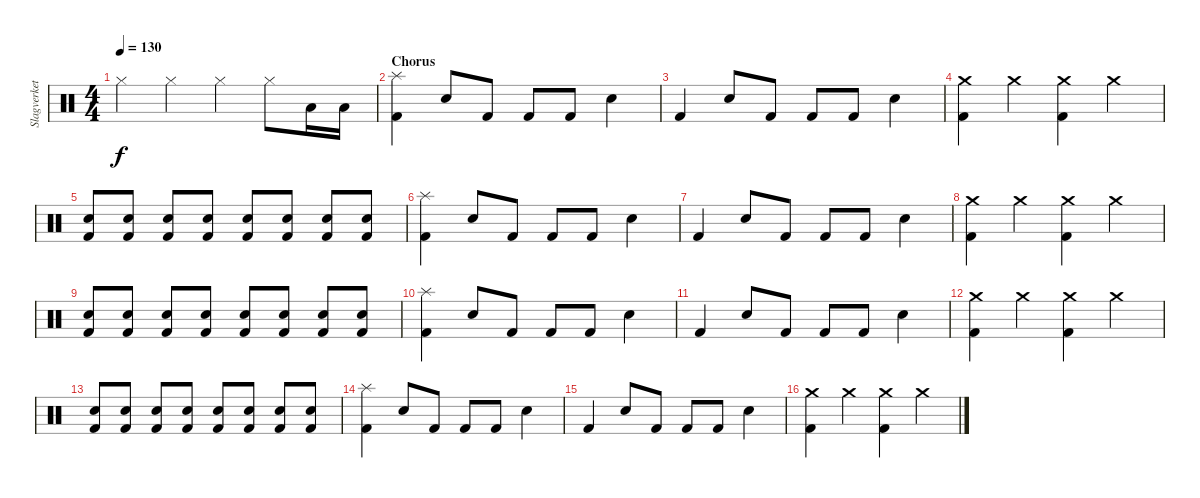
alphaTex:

\track ("Slagverket !!" "Slagverket") {instrument percussion}
\staff {score}
\articulation defaults
\ts (4 4)
\tempo 130
\clef neutral
\ks c "Hi-Hat (closed)".4{dy f} "Hi-Hat (closed)".4 "Hi-Hat (closed)".4 "Hi-Hat (closed)".8 "Low Tom (hit)".16 "Low Tom (hit)".16
|
\section ("" "Chorus")
("Splash (hit)" "Kick (hit) 2").4 "Snare (hit) 2".8 "Kick (hit) 2".8 "Kick (hit) 2".8 "Kick (hit) 2".8 "Snare (hit) 2".4 |
"Kick (hit) 2".4 "Snare (hit) 2".8 "Kick (hit) 2".8 "Kick (hit) 2".8 "Kick (hit) 2".8 "Snare (hit) 2".4 |
("Crash medium (hit)" "Kick (hit) 2").4 "Crash medium (hit)".4 ("Crash medium (hit)" "Kick (hit) 2").4 "Crash medium (hit)".4 |
("Snare (hit) 2" "Kick (hit) 2").8 ("Snare (hit) 2" "Kick (hit) 2").8 ("Snare (hit) 2" "Kick (hit) 2").8 ("Snare (hit) 2" "Kick (hit) 2").8 ("Snare (hit) 2" "Kick (hit) 2").8 ("Snare (hit) 2" "Kick (hit) 2").8 ("Snare (hit) 2" "Kick (hit) 2").8 ("Snare (hit) 2" "Kick (hit) 2").8 |
("Splash (hit)" "Kick (hit) 2").4 "Snare (hit) 2".8 "Kick (hit) 2".8 "Kick (hit) 2".8 "Kick (hit) 2".8 "Snare (hit) 2".4 |
"Kick (hit) 2".4 "Snare (hit) 2".8 "Kick (hit) 2".8 "Kick (hit) 2".8 "Kick (hit) 2".8 "Snare (hit) 2".4 |
("Crash medium (hit)" "Kick (hit) 2").4 "Crash medium (hit)".4 ("Crash medium (hit)" "Kick (hit) 2").4 "Crash medium (hit)".4 |
("Snare (hit) 2" "Kick (hit) 2").8 ("Snare (hit) 2" "Kick (hit) 2").8 ("Snare (hit) 2" "Kick (hit) 2").8 ("Snare (hit) 2" "Kick (hit) 2").8 ("Snare (hit) 2" "Kick (hit) 2").8 ("Snare (hit) 2" "Kick (hit) 2").8 ("Snare (hit) 2" "Kick (hit) 2").8 ("Snare (hit) 2" "Kick (hit) 2").8 |
("Splash (hit)" "Kick (hit) 2").4 "Snare (hit) 2".8 "Kick (hit) 2".8 "Kick (hit) 2".8 "Kick (hit) 2".8 "Snare (hit) 2".4 |
"Kick (hit) 2".4 "Snare (hit) 2".8 "Kick (hit) 2".8 "Kick (hit) 2".8 "Kick (hit) 2".8 "Snare (hit) 2".4 |
("Crash medium (hit)" "Kick (hit) 2").4 "Crash medium (hit)".4 ("Crash medium (hit)" "Kick (hit) 2").4 "Crash medium (hit)".4 |
("Snare (hit) 2" "Kick (hit) 2").8 ("Snare (hit) 2" "Kick (hit) 2").8 ("Snare (hit) 2" "Kick (hit) 2").8 ("Snare (hit) 2" "Kick (hit) 2").8 ("Snare (hit) 2" "Kick (hit) 2").8 ("Snare (hit) 2" "Kick (hit) 2").8 ("Snare (hit) 2" "Kick (hit) 2").8 ("Snare (hit) 2" "Kick (hit) 2").8 |
("Splash (hit)" "Kick (hit) 2").4 "Snare (hit) 2".8 "Kick (hit) 2".8 "Kick (hit) 2".8 "Kick (hit) 2".8 "Snare (hit) 2".4 |
"Kick (hit) 2".4 "Snare (hit) 2".8 "Kick (hit) 2".8 "Kick (hit) 2".8 "Kick (hit) 2".8 "Snare (hit) 2".4 |
("Crash medium (hit)" "Kick (hit) 2").4 "Crash medium (hit)".4 ("Crash medium (hit)" "Kick (hit) 2").4 "Crash medium (hit)".4
